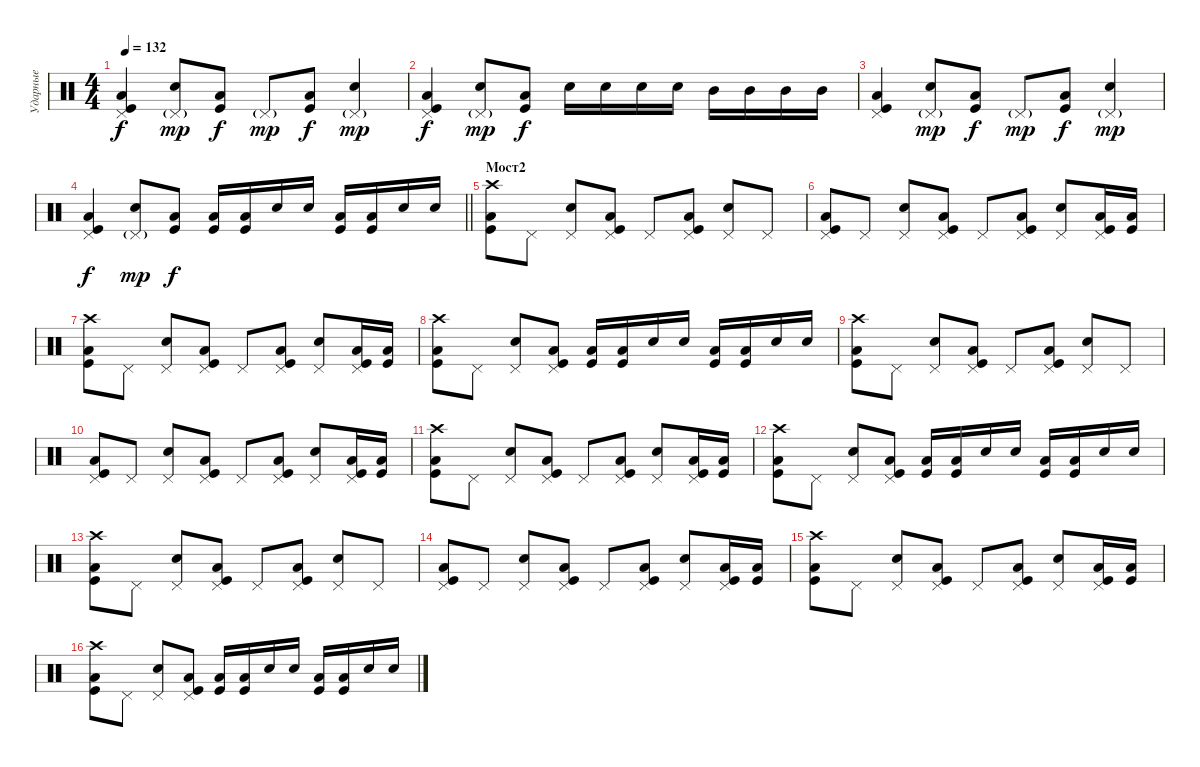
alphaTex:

\track ("Ударные" "Ударные") {instrument percussion}
\staff {score}
\articulation defaults
\ts (4 4)
\tempo 132
\clef neutral
\ks c
("Pedal Hi-Hat (hit)" "Low Tom (hit)" "Kick (hit)").4{dy f} ("Pedal Hi-Hat (hit)"{g} "Electric Snare (hit)").8{dy mp} ("Low Tom (hit)" "Kick (hit)").8{dy f} "Pedal Hi-Hat (hit)"{g}.8{dy mp} ("Low Tom (hit)" "Kick (hit)").8{dy f} ("Pedal Hi-Hat (hit)"{g} "Electric Snare (hit)").4{dy mp} |
("Pedal Hi-Hat (hit)" "Low Tom (hit)" "Kick (hit)").4{dy f} ("Pedal Hi-Hat (hit)"{g} "Electric Snare (hit)").8{dy mp} ("Low Tom (hit)" "Kick (hit)").8{dy f} "Electric Snare (hit)".16 "Electric Snare (hit)".16 "Electric Snare (hit)".16 "Electric Snare (hit)".16 "Mid Tom (hit)".16 "Mid Tom (hit)".16 "Mid Tom (hit)".16 "Mid Tom (hit)".16 |
("Pedal Hi-Hat (hit)" "Low Tom (hit)" "Kick (hit)").4 ("Pedal Hi-Hat (hit)"{g} "Electric Snare (hit)").8{dy mp} ("Low Tom (hit)" "Kick (hit)").8{dy f} "Pedal Hi-Hat (hit)"{g}.8{dy mp} ("Low Tom (hit)" "Kick (hit)").8{dy f} ("Pedal Hi-Hat (hit)"{g} "Electric Snare (hit)").4{dy mp} |
\barLineRight lightlight
("Pedal Hi-Hat (hit)" "Low Tom (hit)" "Kick (hit)").4{dy f} ("Pedal Hi-Hat (hit)"{g} "Electric Snare (hit)").8{dy mp} ("Low Tom (hit)" "Kick (hit)").8{dy f} ("Low Tom (hit)" "Kick (hit)").16 ("Low Tom (hit)" "Kick (hit)").16 "Electric Snare (hit)".16 "Electric Snare (hit)".16 ("Low Tom (hit)" "Kick (hit)").16 ("Low Tom (hit)" "Kick (hit)").16 "Electric Snare (hit)".16 "Electric Snare (hit)".16 |
\section ("" "Мост2")
("Crash high (hit)" "Low Tom (hit)" "Kick (hit)").8 "Pedal Hi-Hat (hit)".8 ("Pedal Hi-Hat (hit)" "Snare (hit) 2").8 ("Pedal Hi-Hat (hit)" "Low Tom (hit)" "Kick (hit)").8 "Pedal Hi-Hat (hit)".8 ("Pedal Hi-Hat (hit)" "Low Tom (hit)" "Kick (hit)").8 ("Pedal Hi-Hat (hit)" "Snare (hit) 2").8 "Pedal Hi-Hat (hit)".8 |
("Pedal Hi-Hat (hit)" "Low Tom (hit)" "Kick (hit)").8 "Pedal Hi-Hat (hit)".8 ("Pedal Hi-Hat (hit)" "Snare (hit) 2").8 ("Pedal Hi-Hat (hit)" "Low Tom (hit)" "Kick (hit)").8 "Pedal Hi-Hat (hit)".8 ("Pedal Hi-Hat (hit)" "Low Tom (hit)" "Kick (hit)").8 ("Pedal Hi-Hat (hit)" "Snare (hit) 2").8 ("Pedal Hi-Hat (hit)" "Low Tom (hit)" "Kick (hit)").16 ("Low Tom (hit)" "Kick (hit)").16 |
("Crash high (hit)" "Low Tom (hit)" "Kick (hit)").8 "Pedal Hi-Hat (hit)".8 ("Pedal Hi-Hat (hit)" "Snare (hit) 2").8 ("Pedal Hi-Hat (hit)" "Low Tom (hit)" "Kick (hit)").8 "Pedal Hi-Hat (hit)".8 ("Pedal Hi-Hat (hit)" "Low Tom (hit)" "Kick (hit)").8 ("Pedal Hi-Hat (hit)" "Snare (hit) 2").8 ("Pedal Hi-Hat (hit)" "Low Tom (hit)" "Kick (hit)").16 ("Low Tom (hit)" "Kick (hit)").16 |
("Crash high (hit)" "Low Tom (hit)" "Kick (hit)").8 "Pedal Hi-Hat (hit)".8 ("Pedal Hi-Hat (hit)" "Snare (hit) 2").8 ("Pedal Hi-Hat (hit)" "Low Tom (hit)" "Kick (hit)").8 ("Low Tom (hit)" "Kick (hit)").16 ("Low Tom (hit)" "Kick (hit)").16 "Electric Snare (hit)".16 "Electric Snare (hit)".16 ("Low Tom (hit)" "Kick (hit)").16 ("Low Tom (hit)" "Kick (hit)").16 "Electric Snare (hit)".16 "Electric Snare (hit)".16 |
("Crash high (hit)" "Low Tom (hit)" "Kick (hit)").8 "Pedal Hi-Hat (hit)".8 ("Pedal Hi-Hat (hit)" "Snare (hit) 2").8 ("Pedal Hi-Hat (hit)" "Low Tom (hit)" "Kick (hit)").8 "Pedal Hi-Hat (hit)".8 ("Pedal Hi-Hat (hit)" "Low Tom (hit)" "Kick (hit)").8 ("Pedal Hi-Hat (hit)" "Snare (hit) 2").8 "Pedal Hi-Hat (hit)".8 |
("Pedal Hi-Hat (hit)" "Low Tom (hit)" "Kick (hit)").8 "Pedal Hi-Hat (hit)".8 ("Pedal Hi-Hat (hit)" "Snare (hit) 2").8 ("Pedal Hi-Hat (hit)" "Low Tom (hit)" "Kick (hit)").8 "Pedal Hi-Hat (hit)".8 ("Pedal Hi-Hat (hit)" "Low Tom (hit)" "Kick (hit)").8 ("Pedal Hi-Hat (hit)" "Snare (hit) 2").8 ("Pedal Hi-Hat (hit)" "Low Tom (hit)" "Kick (hit)").16 ("Low Tom (hit)" "Kick (hit)").16 |
("Crash high (hit)" "Low Tom (hit)" "Kick (hit)").8 "Pedal Hi-Hat (hit)".8 ("Pedal Hi-Hat (hit)" "Snare (hit) 2").8 ("Pedal Hi-Hat (hit)" "Low Tom (hit)" "Kick (hit)").8 "Pedal Hi-Hat (hit)".8 ("Pedal Hi-Hat (hit)" "Low Tom (hit)" "Kick (hit)").8 ("Pedal Hi-Hat (hit)" "Snare (hit) 2").8 ("Pedal Hi-Hat (hit)" "Low Tom (hit)" "Kick (hit)").16 ("Low Tom (hit)" "Kick (hit)").16 |
("Crash high (hit)" "Low Tom (hit)" "Kick (hit)").8 "Pedal Hi-Hat (hit)".8 ("Pedal Hi-Hat (hit)" "Snare (hit) 2").8 ("Pedal Hi-Hat (hit)" "Low Tom (hit)" "Kick (hit)").8 ("Low Tom (hit)" "Kick (hit)").16 ("Low Tom (hit)" "Kick (hit)").16 "Electric Snare (hit)".16 "Electric Snare (hit)".16 ("Low Tom (hit)" "Kick (hit)").16 ("Low Tom (hit)" "Kick (hit)").16 "Electric Snare (hit)".16 "Electric Snare (hit)".16 |
("Crash high (hit)" "Low Tom (hit)" "Kick (hit)").8 "Pedal Hi-Hat (hit)".8 ("Pedal Hi-Hat (hit)" "Snare (hit) 2").8 ("Pedal Hi-Hat (hit)" "Low Tom (hit)" "Kick (hit)").8 "Pedal Hi-Hat (hit)".8 ("Pedal Hi-Hat (hit)" "Low Tom (hit)" "Kick (hit)").8 ("Pedal Hi-Hat (hit)" "Snare (hit) 2").8 "Pedal Hi-Hat (hit)".8 |
("Pedal Hi-Hat (hit)" "Low Tom (hit)" "Kick (hit)").8 "Pedal Hi-Hat (hit)".8 ("Pedal Hi-Hat (hit)" "Snare (hit) 2").8 ("Pedal Hi-Hat (hit)" "Low Tom (hit)" "Kick (hit)").8 "Pedal Hi-Hat (hit)".8 ("Pedal Hi-Hat (hit)" "Low Tom (hit)" "Kick (hit)").8 ("Pedal Hi-Hat (hit)" "Snare (hit) 2").8 ("Pedal Hi-Hat (hit)" "Low Tom (hit)" "Kick (hit)").16 ("Low Tom (hit)" "Kick (hit)").16 |
("Crash high (hit)" "Low Tom (hit)" "Kick (hit)").8 "Pedal Hi-Hat (hit)".8 ("Pedal Hi-Hat (hit)" "Snare (hit) 2").8 ("Pedal Hi-Hat (hit)" "Low Tom (hit)" "Kick (hit)").8 "Pedal Hi-Hat (hit)".8 ("Pedal Hi-Hat (hit)" "Low Tom (hit)" "Kick (hit)").8 ("Pedal Hi-Hat (hit)" "Snare (hit) 2").8 ("Pedal Hi-Hat (hit)" "Low Tom (hit)" "Kick (hit)").16 ("Low Tom (hit)" "Kick (hit)").16 |
("Crash high (hit)" "Low Tom (hit)" "Kick (hit)").8 "Pedal Hi-Hat (hit)".8 ("Pedal Hi-Hat (hit)" "Snare (hit) 2").8 ("Pedal Hi-Hat (hit)" "Low Tom (hit)" "Kick (hit)").8 ("Low Tom (hit)" "Kick (hit)").16 ("Low Tom (hit)" "Kick (hit)").16 "Electric Snare (hit)".16 "Electric Snare (hit)".16 ("Low Tom (hit)" "Kick (hit)").16 ("Low Tom (hit)" "Kick (hit)").16 "Electric Snare (hit)".16 "Electric Snare (hit)".16
